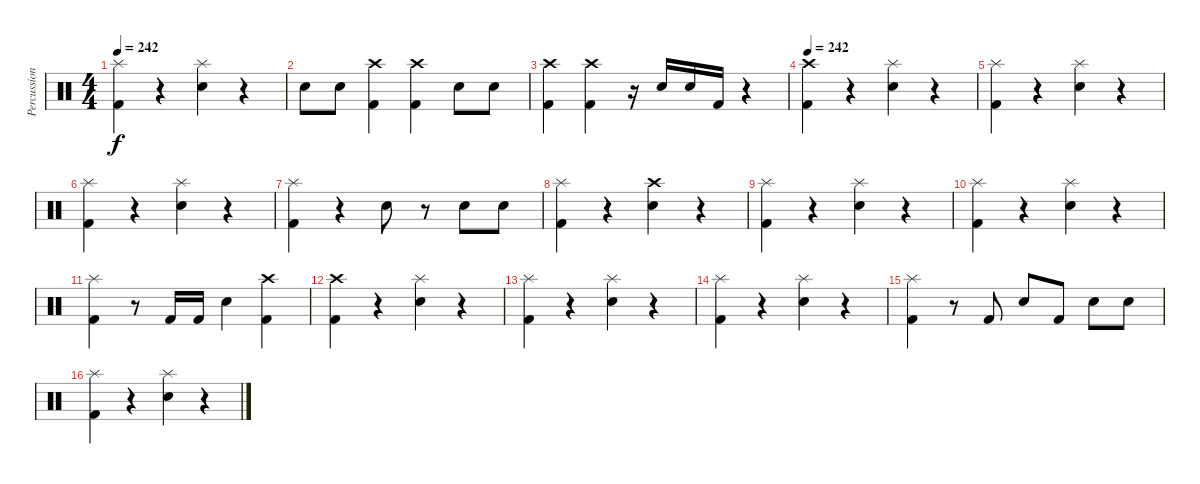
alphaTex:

\track ("Percussion" "Percussion") {instrument percussion}
\staff {score}
\articulation defaults
\ts (4 4)
\tempo 242
\clef neutral
\ks c
("Splash (hit)" "Kick (hit) 2").4{dy f} r.4 ("Splash (hit)" "Electric Snare (hit)").4 r.4 |
"Electric Snare (hit)".8 "Electric Snare (hit)".8 ("Crash high (hit)" "Kick (hit) 2").4 ("Crash high (hit)" "Kick (hit) 2").4 "Electric Snare (hit)".8 "Electric Snare (hit)".8 |
("Crash high (hit)" "Kick (hit) 2").4 ("Crash high (hit)" "Kick (hit) 2").4 r.16 "Electric Snare (hit)".16 "Electric Snare (hit)".16 "Kick (hit) 2".16 r.4 |
\tempo 242
("Crash high (hit)" "Kick (hit) 2").4 r.4 ("Splash (hit)" "Electric Snare (hit)").4 r.4 |
("Splash (hit)" "Kick (hit) 2").4 r.4 ("Splash (hit)" "Electric Snare (hit)").4 r.4 |
("Splash (hit)" "Kick (hit) 2").4 r.4 ("Splash (hit)" "Electric Snare (hit)").4 r.4 |
("Splash (hit)" "Kick (hit) 2").4 r.4 "Electric Snare (hit)".8 r.8 "Electric Snare (hit)".8 "Electric Snare (hit)".8 |
("Splash (hit)" "Kick (hit) 2").4 r.4 ("Crash high (hit)" "Electric Snare (hit)").4 r.4 |
("Splash (hit)" "Kick (hit) 2").4 r.4 ("Splash (hit)" "Electric Snare (hit)").4 r.4 |
("Splash (hit)" "Kick (hit) 2").4 r.4 ("Splash (hit)" "Electric Snare (hit)").4 r.4 |
("Splash (hit)" "Kick (hit) 2").4 r.8 "Kick (hit) 2".16 "Kick (hit) 2".16 "Electric Snare (hit)".4 ("Crash high (hit)" "Kick (hit) 2").4 |
("Crash high (hit)" "Kick (hit) 2").4 r.4 ("Splash (hit)" "Electric Snare (hit)").4 r.4 |
("Splash (hit)" "Kick (hit) 2").4 r.4 ("Splash (hit)" "Electric Snare (hit)").4 r.4 |
("Splash (hit)" "Kick (hit) 2").4 r.4 ("Splash (hit)" "Electric Snare (hit)").4 r.4 |
("Splash (hit)" "Kick (hit) 2").4 r.8 "Kick (hit) 2".8 "Electric Snare (hit)".8 "Kick (hit) 2".8 "Electric Snare (hit)".8 "Electric Snare (hit)".8 |
("Splash (hit)" "Kick (hit) 2").4 r.4 ("Splash (hit)" "Electric Snare (hit)").4 r.4
